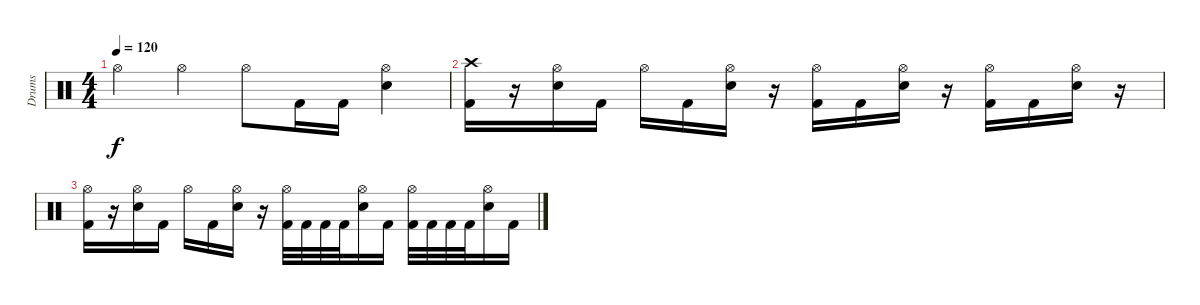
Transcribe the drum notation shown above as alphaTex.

\track ("Drums" "Drums") {instrument percussion}
\staff
\articulation defaults
\ts (4 4)
\tempo 120
\clef neutral
\ks c "Hi-Hat (open)".4{dy f} "Hi-Hat (open)".4 "Hi-Hat (open)".8 "Kick (hit) 2".16 "Kick (hit) 2".16
("Hi-Hat (open)" "Electric Snare (hit)").4 |
("Crash high (hit)" "Kick (hit) 2").16 r.16 ("Hi-Hat (open)" "Electric Snare (hit)").16 "Kick (hit) 2".16 "Hi-Hat (open)".16 "Kick (hit) 2".16 ("Hi-Hat (open)" "Electric Snare (hit)").16 r.16 ("Hi-Hat (open)" "Kick (hit) 2").16 "Kick (hit) 2".16 ("Hi-Hat (open)" "Electric Snare (hit)").16 r.16 ("Hi-Hat (open)" "Kick (hit) 2").16 "Kick (hit) 2".16 ("Hi-Hat (open)" "Electric Snare (hit)").16 r.16 |
("Hi-Hat (open)" "Kick (hit) 2").16 r.16 ("Hi-Hat (open)" "Electric Snare (hit)").16 "Kick (hit) 2".16 "Hi-Hat (open)".16 "Kick (hit) 2".16 ("Hi-Hat (open)" "Electric Snare (hit)").16 r.16 ("Hi-Hat (open)" "Kick (hit) 2").32 "Kick (hit) 2".32 "Kick (hit) 2".32 "Kick (hit) 2".32 ("Hi-Hat (open)" "Electric Snare (hit)").16 "Kick (hit) 2".16 ("Hi-Hat (open)" "Kick (hit) 2").32 "Kick (hit) 2".32 "Kick (hit) 2".32 "Kick (hit) 2".32 ("Hi-Hat (open)" "Electric Snare (hit)").16 "Kick (hit) 2".16
